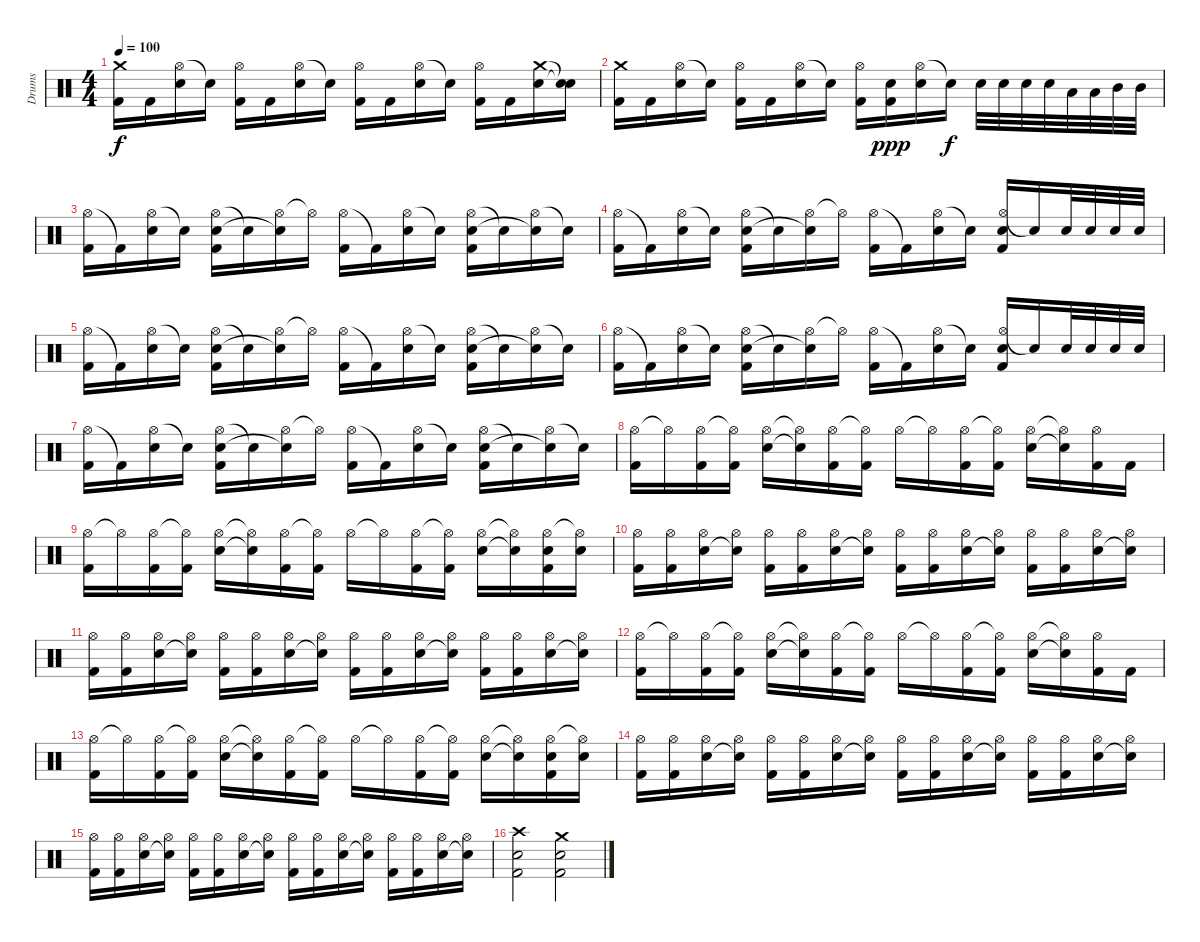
\track ("Drums" "Drums") {instrument percussion}
\staff {score}
\articulation defaults
\ts (4 4)
\tempo 100
\clef neutral
\ks c
("Crash medium (hit)" "Kick (hit) 2").16{dy f} "Kick (hit) 2".16 ("Hi-Hat (open)" "Electric Snare (hit)").16 "Electric Snare (hit)"{t}.16 ("Hi-Hat (open)" "Kick (hit) 2").16 "Kick (hit) 2".16 ("Hi-Hat (open)" "Electric Snare (hit)").16 "Electric Snare (hit)"{t}.16 ("Hi-Hat (open)" "Kick (hit) 2").16 "Kick (hit) 2".16 ("Hi-Hat (open)" "Electric Snare (hit)").16 "Snare (hit)"{t}.16 ("Hi-Hat (open)" "Kick (hit) 2").16 "Kick (hit) 2".16 ("Crash medium (hit)" "Electric Snare (hit)").16 ("Snare (hit)"{t} "Electric Snare (hit)"{t}).16 |
("Crash medium (hit)" "Kick (hit) 2").16 "Kick (hit) 2".16 ("Hi-Hat (open)" "Electric Snare (hit)").16 "Electric Snare (hit)"{t}.16 ("Hi-Hat (open)" "Kick (hit) 2").16 "Kick (hit) 2".16 ("Hi-Hat (open)" "Electric Snare (hit)").16 "Electric Snare (hit)"{t}.16 ("Hi-Hat (open)" "Kick (hit) 2").16 ("Electric Snare (hit)" "Kick (hit) 2").16{dy ppp} ("Hi-Hat (open)" "Electric Snare (hit)").16 "Snare (hit)"{t}.16{dy f} "Electric Snare (hit)".32 "Electric Snare (hit)".32 "Electric Snare (hit)".32 "Electric Snare (hit)".32 "Low Tom (hit)".32 "Low Tom (hit)".32 "Mid Tom (hit)".32 "Mid Tom (hit)".32 |
("Hi-Hat (open)" "Kick (hit) 2").16 "Kick (hit) 2"{t}.16 ("Hi-Hat (open)" "Electric Snare (hit)").16 "Electric Snare (hit)"{t}.16 ("Hi-Hat (open)" "Electric Snare (hit)" "Kick (hit) 2").16 "Snare (hit)"{t}.16 ("Hi-Hat (open)" "Electric Snare (hit)"{t}).16 "Hi-Hat (open)"{t}.16 ("Hi-Hat (open)" "Kick (hit) 2").16 "Kick (hit) 2"{t}.16 ("Hi-Hat (open)" "Electric Snare (hit)").16 "Snare (hit)"{t}.16 ("Hi-Hat (open)" "Electric Snare (hit)" "Kick (hit) 2").16 "Snare (hit)"{t}.16 ("Hi-Hat (open)" "Electric Snare (hit)"{t}).16 "Snare (hit)"{t}.16 |
("Hi-Hat (open)" "Kick (hit) 2").16 "Kick (hit) 2"{t}.16 ("Hi-Hat (open)" "Electric Snare (hit)").16 "Electric Snare (hit)"{t}.16 ("Hi-Hat (open)" "Electric Snare (hit)" "Kick (hit) 2").16 "Snare (hit)"{t}.16 ("Hi-Hat (open)" "Electric Snare (hit)"{t}).16 "Hi-Hat (open)"{t}.16 ("Hi-Hat (open)" "Kick (hit) 2").16 "Kick (hit) 2"{t}.16 ("Hi-Hat (open)" "Electric Snare (hit)").16 "Snare (hit)"{t}.16 ("Hi-Hat (open)" "Electric Snare (hit)" "Kick (hit) 2").16 "Electric Snare (hit)"{t}.16 "Electric Snare (hit)".32 "Electric Snare (hit)".32 "Electric Snare (hit)".32 "Electric Snare (hit)".32 |
("Hi-Hat (open)" "Kick (hit) 2").16 "Kick (hit) 2"{t}.16 ("Hi-Hat (open)" "Electric Snare (hit)").16 "Electric Snare (hit)"{t}.16 ("Hi-Hat (open)" "Electric Snare (hit)" "Kick (hit) 2").16 "Snare (hit)"{t}.16 ("Hi-Hat (open)" "Electric Snare (hit)"{t}).16 "Hi-Hat (open)"{t}.16 ("Hi-Hat (open)" "Kick (hit) 2").16 "Kick (hit) 2"{t}.16 ("Hi-Hat (open)" "Electric Snare (hit)").16 "Snare (hit)"{t}.16 ("Hi-Hat (open)" "Electric Snare (hit)" "Kick (hit) 2").16 "Snare (hit)"{t}.16 ("Hi-Hat (open)" "Electric Snare (hit)"{t}).16 "Snare (hit)"{t}.16 |
("Hi-Hat (open)" "Kick (hit) 2").16 "Kick (hit) 2"{t}.16 ("Hi-Hat (open)" "Electric Snare (hit)").16 "Electric Snare (hit)"{t}.16 ("Hi-Hat (open)" "Electric Snare (hit)" "Kick (hit) 2").16 "Snare (hit)"{t}.16 ("Hi-Hat (open)" "Electric Snare (hit)"{t}).16 "Hi-Hat (open)"{t}.16 ("Hi-Hat (open)" "Kick (hit) 2").16 "Kick (hit) 2"{t}.16 ("Hi-Hat (open)" "Electric Snare (hit)").16 "Snare (hit)"{t}.16 ("Hi-Hat (open)" "Electric Snare (hit)" "Kick (hit) 2").16 "Electric Snare (hit)"{t}.16 "Electric Snare (hit)".32 "Electric Snare (hit)".32 "Electric Snare (hit)".32 "Electric Snare (hit)".32 |
("Hi-Hat (open)" "Kick (hit) 2").16 "Kick (hit) 2"{t}.16 ("Hi-Hat (open)" "Electric Snare (hit)").16 "Electric Snare (hit)"{t}.16 ("Hi-Hat (open)" "Electric Snare (hit)" "Kick (hit) 2").16 "Snare (hit)"{t}.16 ("Hi-Hat (open)" "Electric Snare (hit)"{t}).16 "Hi-Hat (open)"{t}.16 ("Hi-Hat (open)" "Kick (hit) 2").16 "Kick (hit) 2"{t}.16 ("Hi-Hat (open)" "Electric Snare (hit)").16 "Snare (hit)"{t}.16 ("Hi-Hat (open)" "Electric Snare (hit)" "Kick (hit) 2").16 "Snare (hit)"{t}.16 ("Hi-Hat (open)" "Electric Snare (hit)"{t}).16 "Snare (hit)"{t}.16 |
("Hi-Hat (open)" "Kick (hit) 2").16 "Hi-Hat (open)"{t}.16 ("Hi-Hat (open)" "Kick (hit) 2").16 ("Hi-Hat (open)"{t} "Kick (hit) 2").16 ("Hi-Hat (open)" "Electric Snare (hit)").16 ("Hi-Hat (open)"{t} "Snare (hit)"{t}).16 ("Hi-Hat (open)" "Kick (hit) 2").16 ("Hi-Hat (open)"{t} "Kick (hit) 2").16 "Hi-Hat (open)".16 "Hi-Hat (open)"{t}.16 ("Hi-Hat (open)" "Kick (hit) 2").16 ("Hi-Hat (open)"{t} "Kick (hit) 2").16 ("Hi-Hat (open)" "Electric Snare (hit)").16 ("Hi-Hat (open)"{t} "Snare (hit)"{t}).16 ("Hi-Hat (open)" "Kick (hit) 2").16 "Kick (hit) 2".16 |
("Hi-Hat (open)" "Kick (hit) 2").16 "Hi-Hat (open)"{t}.16 ("Hi-Hat (open)" "Kick (hit) 2").16 ("Hi-Hat (open)"{t} "Kick (hit) 2").16 ("Hi-Hat (open)" "Electric Snare (hit)").16 ("Hi-Hat (open)"{t} "Snare (hit)"{t}).16 ("Hi-Hat (open)" "Kick (hit) 2").16 ("Hi-Hat (open)"{t} "Kick (hit) 2").16 "Hi-Hat (open)".16 "Hi-Hat (open)"{t}.16 ("Hi-Hat (open)" "Kick (hit) 2").16 ("Hi-Hat (open)"{t} "Kick (hit) 2").16 ("Hi-Hat (open)" "Electric Snare (hit)").16 ("Hi-Hat (open)"{t} "Snare (hit)"{t}).16 ("Hi-Hat (open)" "Electric Snare (hit)" "Kick (hit) 2").16 ("Hi-Hat (open)"{t} "Electric Snare (hit)").16 |
("Hi-Hat (open)" "Kick (hit) 2").16 ("Hi-Hat (open)" "Kick (hit) 2").16 ("Hi-Hat (open)" "Electric Snare (hit)").16 ("Hi-Hat (open)" "Snare (hit)"{t}).16 ("Hi-Hat (open)" "Kick (hit) 2").16 ("Hi-Hat (open)" "Kick (hit) 2").16 ("Hi-Hat (open)" "Electric Snare (hit)").16 ("Hi-Hat (open)" "Snare (hit)"{t}).16 ("Hi-Hat (open)" "Kick (hit) 2").16 ("Hi-Hat (open)" "Kick (hit) 2").16 ("Hi-Hat (open)" "Electric Snare (hit)").16 ("Hi-Hat (open)" "Snare (hit)"{t}).16 ("Hi-Hat (open)" "Kick (hit) 2").16 ("Hi-Hat (open)" "Kick (hit) 2").16 ("Hi-Hat (open)" "Electric Snare (hit)").16 ("Hi-Hat (open)" "Electric Snare (hit)"{t}).16 |
("Hi-Hat (open)" "Kick (hit) 2").16 ("Hi-Hat (open)" "Kick (hit) 2").16 ("Hi-Hat (open)" "Electric Snare (hit)").16 ("Hi-Hat (open)" "Snare (hit)"{t}).16 ("Hi-Hat (open)" "Kick (hit) 2").16 ("Hi-Hat (open)" "Kick (hit) 2").16 ("Hi-Hat (open)" "Electric Snare (hit)").16 ("Hi-Hat (open)" "Snare (hit)"{t}).16 ("Hi-Hat (open)" "Kick (hit) 2").16 ("Hi-Hat (open)" "Kick (hit) 2").16 ("Hi-Hat (open)" "Electric Snare (hit)").16 ("Hi-Hat (open)" "Snare (hit)"{t}).16 ("Hi-Hat (open)" "Kick (hit) 2").16 ("Hi-Hat (open)" "Kick (hit) 2").16 ("Hi-Hat (open)" "Electric Snare (hit)").16 ("Hi-Hat (open)" "Electric Snare (hit)"{t}).16 |
("Hi-Hat (open)" "Kick (hit) 2").16 "Hi-Hat (open)"{t}.16 ("Hi-Hat (open)" "Kick (hit) 2").16 ("Hi-Hat (open)"{t} "Kick (hit) 2").16 ("Hi-Hat (open)" "Electric Snare (hit)").16 ("Hi-Hat (open)"{t} "Snare (hit)"{t}).16 ("Hi-Hat (open)" "Kick (hit) 2").16 ("Hi-Hat (open)"{t} "Kick (hit) 2").16 "Hi-Hat (open)".16 "Hi-Hat (open)"{t}.16 ("Hi-Hat (open)" "Kick (hit) 2").16 ("Hi-Hat (open)"{t} "Kick (hit) 2").16 ("Hi-Hat (open)" "Electric Snare (hit)").16 ("Hi-Hat (open)"{t} "Snare (hit)"{t}).16 ("Hi-Hat (open)" "Kick (hit) 2").16 "Kick (hit) 2".16 |
("Hi-Hat (open)" "Kick (hit) 2").16 "Hi-Hat (open)"{t}.16 ("Hi-Hat (open)" "Kick (hit) 2").16 ("Hi-Hat (open)"{t} "Kick (hit) 2").16 ("Hi-Hat (open)" "Electric Snare (hit)").16 ("Hi-Hat (open)"{t} "Snare (hit)"{t}).16 ("Hi-Hat (open)" "Kick (hit) 2").16 ("Hi-Hat (open)"{t} "Kick (hit) 2").16 "Hi-Hat (open)".16 "Hi-Hat (open)"{t}.16 ("Hi-Hat (open)" "Kick (hit) 2").16 ("Hi-Hat (open)"{t} "Kick (hit) 2").16 ("Hi-Hat (open)" "Electric Snare (hit)").16 ("Hi-Hat (open)"{t} "Snare (hit)"{t}).16 ("Hi-Hat (open)" "Electric Snare (hit)" "Kick (hit) 2").16 ("Hi-Hat (open)"{t} "Electric Snare (hit)").16 |
("Hi-Hat (open)" "Kick (hit) 2").16 ("Hi-Hat (open)" "Kick (hit) 2").16 ("Hi-Hat (open)" "Electric Snare (hit)").16 ("Hi-Hat (open)" "Snare (hit)"{t}).16 ("Hi-Hat (open)" "Kick (hit) 2").16 ("Hi-Hat (open)" "Kick (hit) 2").16 ("Hi-Hat (open)" "Electric Snare (hit)").16 ("Hi-Hat (open)" "Snare (hit)"{t}).16 ("Hi-Hat (open)" "Kick (hit) 2").16 ("Hi-Hat (open)" "Kick (hit) 2").16 ("Hi-Hat (open)" "Electric Snare (hit)").16 ("Hi-Hat (open)" "Snare (hit)"{t}).16 ("Hi-Hat (open)" "Kick (hit) 2").16 ("Hi-Hat (open)" "Kick (hit) 2").16 ("Hi-Hat (open)" "Electric Snare (hit)").16 ("Hi-Hat (open)" "Electric Snare (hit)"{t}).16 |
("Hi-Hat (open)" "Kick (hit) 2").16 ("Hi-Hat (open)" "Kick (hit) 2").16 ("Hi-Hat (open)" "Electric Snare (hit)").16 ("Hi-Hat (open)" "Snare (hit)"{t}).16 ("Hi-Hat (open)" "Kick (hit) 2").16 ("Hi-Hat (open)" "Kick (hit) 2").16 ("Hi-Hat (open)" "Electric Snare (hit)").16 ("Hi-Hat (open)" "Snare (hit)"{t}).16 ("Hi-Hat (open)" "Kick (hit) 2").16 ("Hi-Hat (open)" "Kick (hit) 2").16 ("Hi-Hat (open)" "Electric Snare (hit)").16 ("Hi-Hat (open)" "Snare (hit)"{t}).16 ("Hi-Hat (open)" "Kick (hit) 2").16 ("Hi-Hat (open)" "Kick (hit) 2").16 ("Hi-Hat (open)" "Electric Snare (hit)").16 ("Hi-Hat (open)" "Electric Snare (hit)"{t}).16 |
("Crash high (hit)" "Electric Snare (hit)" "Kick (hit) 2").2 ("Crash medium (hit)" "Electric Snare (hit)" "Kick (hit) 2").2
